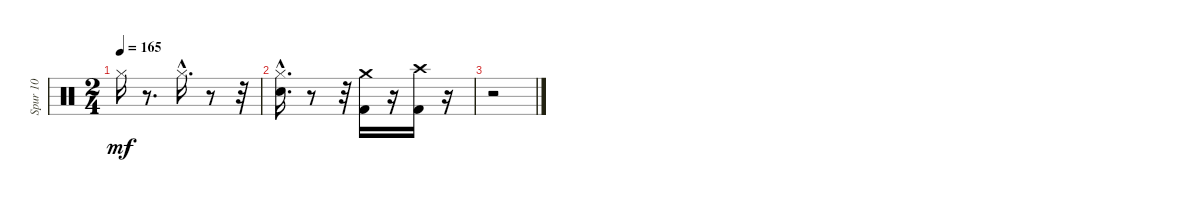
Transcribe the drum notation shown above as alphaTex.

\track ("Spur 10" "Spur 10") {instrument percussion}
\staff {score}
\articulation defaults
\ts (2 4)
\tempo 165
\clef neutral
\ks c "Hi-Hat (closed)".16{dy mf}
r.8{d} "Hi-Hat (closed)"{hac}.16{d} r.8 r.32 |
("Electric Snare (hit)"{hac} "Hi-Hat (closed)").16{d} r.8 r.32 ("Kick (hit) 2" "Crash medium (hit)").16 r.16 ("Kick (hit) 2" "Crash high (hit)").16 r.16 |
r.2
